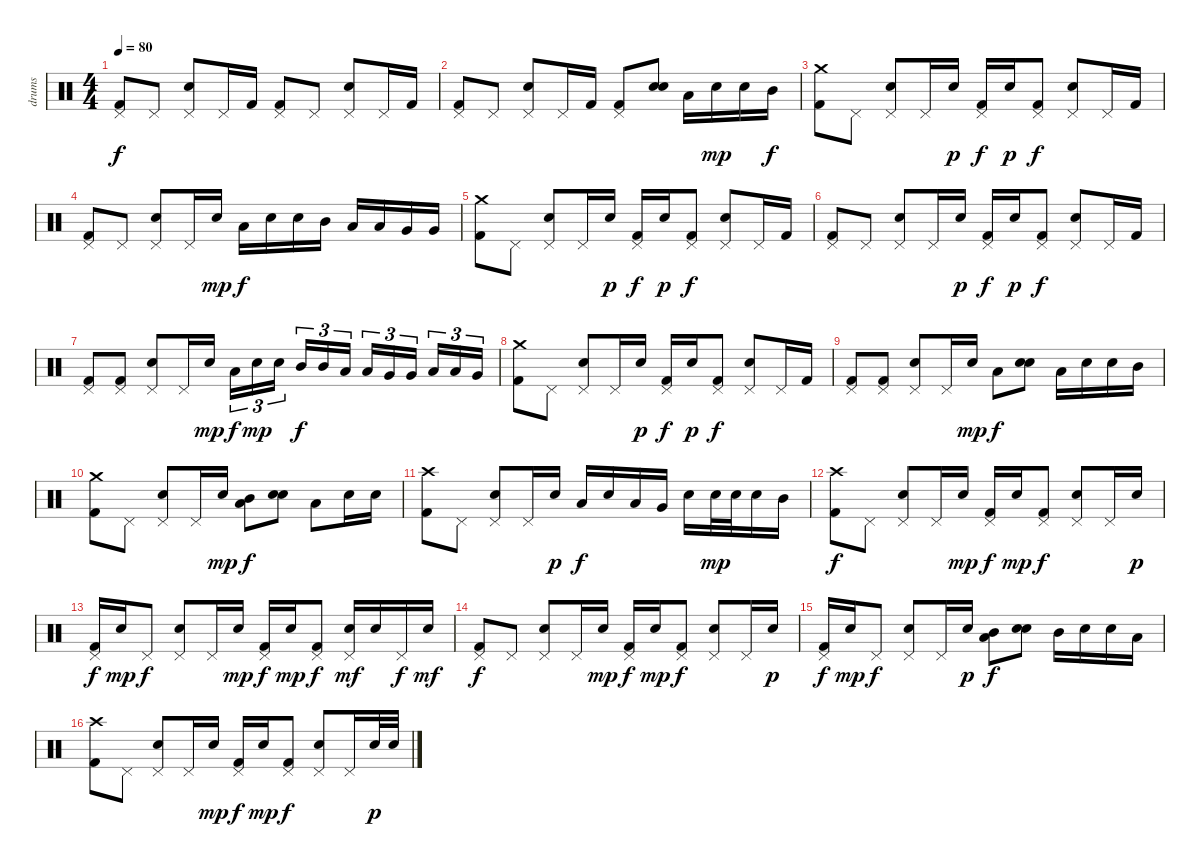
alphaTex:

\track ("drums" "drums") {instrument percussion}
\staff {score}
\articulation defaults
\ts (4 4)
\tempo 80
\clef neutral
\ks c
("Pedal Hi-Hat (hit)" "Kick (hit) 2").8{dy f} "Pedal Hi-Hat (hit)".8 ("Pedal Hi-Hat (hit)" "Electric Snare (hit)").8 "Pedal Hi-Hat (hit)".16 "Kick (hit) 2".16 ("Pedal Hi-Hat (hit)" "Kick (hit) 2").8 "Pedal Hi-Hat (hit)".8 ("Pedal Hi-Hat (hit)" "Electric Snare (hit)").8 "Pedal Hi-Hat (hit)".16 "Kick (hit) 2".16 |
("Pedal Hi-Hat (hit)" "Kick (hit) 2").8 "Pedal Hi-Hat (hit)".8 ("Pedal Hi-Hat (hit)" "Electric Snare (hit)").8 "Pedal Hi-Hat (hit)".16 "Kick (hit) 2".16 ("Pedal Hi-Hat (hit)" "Kick (hit) 2").8 ("Electric Snare (hit)" "Electric Snare (hit)").8 "Low Tom (hit)".16 "Electric Snare (hit)".16{dy mp} "Electric Snare (hit)".16 "Mid Tom (hit)".16{dy f} |
("Crash medium (hit)" "Kick (hit) 2").8 "Pedal Hi-Hat (hit)".8 ("Pedal Hi-Hat (hit)" "Electric Snare (hit)").8 "Pedal Hi-Hat (hit)".16 "Electric Snare (hit)".16{dy p} ("Pedal Hi-Hat (hit)" "Kick (hit) 2").16{dy f} "Electric Snare (hit)".16{dy p} ("Pedal Hi-Hat (hit)" "Kick (hit) 2").8{dy f} ("Pedal Hi-Hat (hit)" "Electric Snare (hit)").8 "Pedal Hi-Hat (hit)".16 "Kick (hit) 2".16 |
("Pedal Hi-Hat (hit)" "Kick (hit) 2").8 "Pedal Hi-Hat (hit)".8 ("Pedal Hi-Hat (hit)" "Electric Snare (hit)").8 "Pedal Hi-Hat (hit)".16 "Snare (hit) 2".16{dy mp} "Low Tom (hit)".16{dy f} "Electric Snare (hit)".16 "Electric Snare (hit)".16 "Mid Tom (hit)".16 "Low Tom (hit)".16 "Low Tom (hit)".16 "Very Low Tom (hit)".16 "Very Low Tom (hit)".16 |
("Crash medium (hit)" "Kick (hit) 2").8 "Pedal Hi-Hat (hit)".8 ("Pedal Hi-Hat (hit)" "Electric Snare (hit)").8 "Pedal Hi-Hat (hit)".16 "Electric Snare (hit)".16{dy p} ("Pedal Hi-Hat (hit)" "Kick (hit) 2").16{dy f} "Electric Snare (hit)".16{dy p} ("Pedal Hi-Hat (hit)" "Kick (hit) 2").8{dy f} ("Pedal Hi-Hat (hit)" "Electric Snare (hit)").8 "Pedal Hi-Hat (hit)".16 "Kick (hit) 2".16 |
("Pedal Hi-Hat (hit)" "Kick (hit) 2").8 "Pedal Hi-Hat (hit)".8 ("Pedal Hi-Hat (hit)" "Electric Snare (hit)").8 "Pedal Hi-Hat (hit)".16 "Electric Snare (hit)".16{dy p} ("Pedal Hi-Hat (hit)" "Kick (hit) 2").16{dy f} "Electric Snare (hit)".16{dy p} ("Pedal Hi-Hat (hit)" "Kick (hit) 2").8{dy f} ("Pedal Hi-Hat (hit)" "Electric Snare (hit)").8 "Pedal Hi-Hat (hit)".16 "Kick (hit) 2".16 |
("Pedal Hi-Hat (hit)" "Kick (hit) 2").8 ("Pedal Hi-Hat (hit)" "Kick (hit) 2").8 ("Pedal Hi-Hat (hit)" "Electric Snare (hit)").8 "Pedal Hi-Hat (hit)".16 "Electric Snare (hit)".16{dy mp} "Low Tom (hit)".16{tu (3 2) dy f} "Electric Snare (hit)".16{tu (3 2) dy mp} "Electric Snare (hit)".16{tu (3 2)} "Mid Tom (hit)".16{tu (3 2) dy f} "Mid Tom (hit)".16{tu (3 2)} "Low Tom (hit)".16{tu (3 2)} "Low Tom (hit)".16{tu (3 2)} "Very Low Tom (hit)".16{tu (3 2)} "Very Low Tom (hit)".16{tu (3 2)} "Low Tom (hit)".16{tu (3 2)} "Low Tom (hit)".16{tu (3 2)} "Very Low Tom (hit)".16{tu (3 2)} |
("Crash medium (hit)" "Kick (hit) 2").8 "Pedal Hi-Hat (hit)".8 ("Pedal Hi-Hat (hit)" "Electric Snare (hit)").8 "Pedal Hi-Hat (hit)".16 "Electric Snare (hit)".16{dy p} ("Pedal Hi-Hat (hit)" "Kick (hit) 2").16{dy f} "Electric Snare (hit)".16{dy p} ("Pedal Hi-Hat (hit)" "Kick (hit) 2").8{dy f} ("Pedal Hi-Hat (hit)" "Electric Snare (hit)").8 "Pedal Hi-Hat (hit)".16 "Kick (hit) 2".16 |
("Pedal Hi-Hat (hit)" "Kick (hit) 2").8 ("Pedal Hi-Hat (hit)" "Kick (hit) 2").8 ("Pedal Hi-Hat (hit)" "Electric Snare (hit)").8 "Pedal Hi-Hat (hit)".16 "Electric Snare (hit)".16{dy mp} "Low Tom (hit)".8{dy f} ("Electric Snare (hit)" "Electric Snare (hit)").8 "Low Tom (hit)".16 "Electric Snare (hit)".16 "Electric Snare (hit)".16 "Mid Tom (hit)".16 |
("Crash medium (hit)" "Kick (hit) 2").8 "Pedal Hi-Hat (hit)".8 ("Pedal Hi-Hat (hit)" "Electric Snare (hit)").8 "Pedal Hi-Hat (hit)".16 "Electric Snare (hit)".16{dy mp} ("Mid Tom (hit)" "Low Tom (hit)").8{dy f} ("Electric Snare (hit)" "Electric Snare (hit)").8 "Low Tom (hit)".8 "Electric Snare (hit)".16 "Electric Snare (hit)".16 |
("Crash high (hit)" "Kick (hit) 2").8 "Pedal Hi-Hat (hit)".8 ("Pedal Hi-Hat (hit)" "Electric Snare (hit)").8 "Pedal Hi-Hat (hit)".16 "Electric Snare (hit)".16{dy p} "Low Tom (hit)".16{dy f} "Electric Snare (hit)".16 "Low Tom (hit)".16 "Very Low Tom (hit)".16 "Electric Snare (hit)".16 "Electric Snare (hit)".32{dy mp} "Electric Snare (hit)".32 "Electric Snare (hit)".16 "Mid Tom (hit)".16 |
("Crash high (hit)" "Kick (hit) 2").8{dy f} "Pedal Hi-Hat (hit)".8 ("Pedal Hi-Hat (hit)" "Electric Snare (hit)").8 "Pedal Hi-Hat (hit)".16 "Electric Snare (hit)".16{dy mp} ("Pedal Hi-Hat (hit)" "Kick (hit) 2").16{dy f} "Electric Snare (hit)".16{dy mp} ("Pedal Hi-Hat (hit)" "Kick (hit) 2").8{dy f} ("Pedal Hi-Hat (hit)" "Electric Snare (hit)").8 "Pedal Hi-Hat (hit)".16 "Electric Snare (hit)".16{dy p} |
("Pedal Hi-Hat (hit)" "Kick (hit) 2").16{dy f} "Electric Snare (hit)".16{dy mp} "Pedal Hi-Hat (hit)".8{dy f} ("Pedal Hi-Hat (hit)" "Electric Snare (hit)").8 "Pedal Hi-Hat (hit)".16 "Electric Snare (hit)".16{dy mp} ("Pedal Hi-Hat (hit)" "Kick (hit) 2").16{dy f} "Electric Snare (hit)".16{dy mp} ("Pedal Hi-Hat (hit)" "Kick (hit) 2").8{dy f} ("Pedal Hi-Hat (hit)" "Electric Snare (hit)").16{dy mf} "Electric Snare (hit)".16 "Pedal Hi-Hat (hit)".16{dy f} "Electric Snare (hit)".16{dy mf} |
("Pedal Hi-Hat (hit)" "Kick (hit) 2").8{dy f} "Pedal Hi-Hat (hit)".8 ("Pedal Hi-Hat (hit)" "Electric Snare (hit)").8 "Pedal Hi-Hat (hit)".16 "Electric Snare (hit)".16{dy mp} ("Pedal Hi-Hat (hit)" "Kick (hit) 2").16{dy f} "Electric Snare (hit)".16{dy mp} ("Pedal Hi-Hat (hit)" "Kick (hit) 2").8{dy f} ("Pedal Hi-Hat (hit)" "Electric Snare (hit)").8 "Pedal Hi-Hat (hit)".16 "Electric Snare (hit)".16{dy p} |
("Pedal Hi-Hat (hit)" "Kick (hit) 2").16{dy f} "Electric Snare (hit)".16{dy mp} "Pedal Hi-Hat (hit)".8{dy f} ("Pedal Hi-Hat (hit)" "Electric Snare (hit)").8 "Pedal Hi-Hat (hit)".16 "Electric Snare (hit)".16{dy p} ("Mid Tom (hit)" "Low Tom (hit)").8{dy f} ("Electric Snare (hit)" "Electric Snare (hit)").8 "Mid Tom (hit)".16 "Electric Snare (hit)".16 "Electric Snare (hit)".16 "Low Tom (hit)".16 |
("Crash high (hit)" "Kick (hit) 2").8 "Pedal Hi-Hat (hit)".8 ("Pedal Hi-Hat (hit)" "Electric Snare (hit)").8 "Pedal Hi-Hat (hit)".16 "Electric Snare (hit)".16{dy mp} ("Pedal Hi-Hat (hit)" "Kick (hit) 2").16{dy f} "Electric Snare (hit)".16{dy mp} ("Pedal Hi-Hat (hit)" "Kick (hit) 2").8{dy f} ("Pedal Hi-Hat (hit)" "Electric Snare (hit)").8 "Pedal Hi-Hat (hit)".16 "Electric Snare (hit)".32{dy p} "Electric Snare (hit)".32
